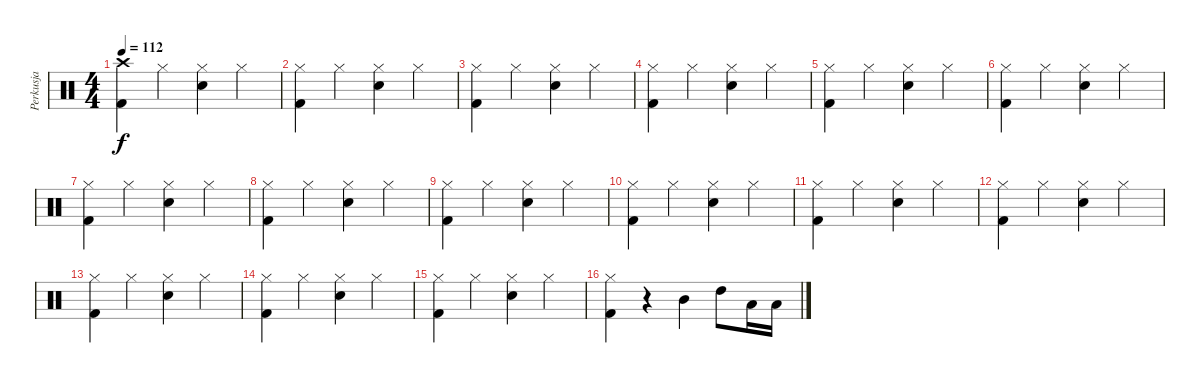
\track ("Perkusja" "Perkusja") {instrument percussion}
\staff {score}
\articulation defaults
\ts (4 4)
\tempo 112
\clef neutral
\ks c
("Kick (hit) 2" "Crash high (hit)").4{dy f} "Hi-Hat (closed)".4 ("Snare (hit) 2" "Hi-Hat (closed)").4 "Hi-Hat (closed)".4 |
("Kick (hit) 2" "Hi-Hat (closed)").4 "Hi-Hat (closed)".4 ("Snare (hit) 2" "Hi-Hat (closed)").4 "Hi-Hat (closed)".4 |
("Kick (hit) 2" "Hi-Hat (closed)").4 "Hi-Hat (closed)".4 ("Snare (hit) 2" "Hi-Hat (closed)").4 "Hi-Hat (closed)".4 |
("Kick (hit) 2" "Hi-Hat (closed)").4 "Hi-Hat (closed)".4 ("Snare (hit) 2" "Hi-Hat (closed)").4 "Hi-Hat (closed)".4 |
("Kick (hit) 2" "Hi-Hat (closed)").4 "Hi-Hat (closed)".4 ("Snare (hit) 2" "Hi-Hat (closed)").4 "Hi-Hat (closed)".4 |
("Kick (hit) 2" "Hi-Hat (closed)").4 "Hi-Hat (closed)".4 ("Snare (hit) 2" "Hi-Hat (closed)").4 "Hi-Hat (closed)".4 |
("Kick (hit) 2" "Hi-Hat (closed)").4 "Hi-Hat (closed)".4 ("Snare (hit) 2" "Hi-Hat (closed)").4 "Hi-Hat (closed)".4 |
("Kick (hit) 2" "Hi-Hat (closed)").4 "Hi-Hat (closed)".4 ("Snare (hit) 2" "Hi-Hat (closed)").4 "Hi-Hat (closed)".4 |
("Kick (hit) 2" "Hi-Hat (closed)").4 "Hi-Hat (closed)".4 ("Snare (hit) 2" "Hi-Hat (closed)").4 "Hi-Hat (closed)".4 |
("Kick (hit) 2" "Hi-Hat (closed)").4 "Hi-Hat (closed)".4 ("Snare (hit) 2" "Hi-Hat (closed)").4 "Hi-Hat (closed)".4 |
("Kick (hit) 2" "Hi-Hat (closed)").4 "Hi-Hat (closed)".4 ("Snare (hit) 2" "Hi-Hat (closed)").4 "Hi-Hat (closed)".4 |
("Kick (hit) 2" "Hi-Hat (closed)").4 "Hi-Hat (closed)".4 ("Snare (hit) 2" "Hi-Hat (closed)").4 "Hi-Hat (closed)".4 |
("Kick (hit) 2" "Hi-Hat (closed)").4 "Hi-Hat (closed)".4 ("Snare (hit) 2" "Hi-Hat (closed)").4 "Hi-Hat (closed)".4 |
("Kick (hit) 2" "Hi-Hat (closed)").4 "Hi-Hat (closed)".4 ("Snare (hit) 2" "Hi-Hat (closed)").4 "Hi-Hat (closed)".4 |
("Kick (hit) 2" "Hi-Hat (closed)").4 "Hi-Hat (closed)".4 ("Snare (hit) 2" "Hi-Hat (closed)").4 "Hi-Hat (closed)".4 |
("Kick (hit) 2" "Hi-Hat (closed)").4 r.4 "Mid Tom (hit)".4 "High Tom (hit)".8 "Low Tom (hit)".16 "Low Tom (hit)".16
